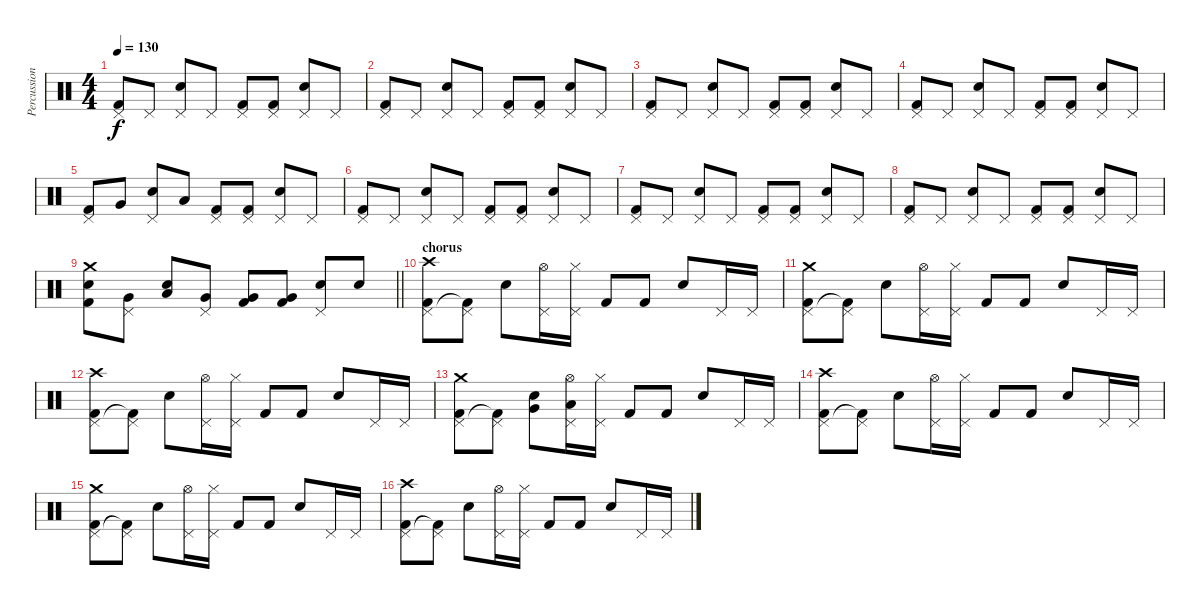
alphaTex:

\track ("Percussion" "Percussion") {instrument percussion}
\staff {score}
\articulation defaults
\ts (4 4)
\tempo 130
\clef neutral
\ks c
("Pedal Hi-Hat (hit)" "Kick (hit) 2").8{dy f} "Pedal Hi-Hat (hit)".8 ("Pedal Hi-Hat (hit)" "Electric Snare (hit)").8 "Pedal Hi-Hat (hit)".8 ("Pedal Hi-Hat (hit)" "Kick (hit) 2").8 ("Pedal Hi-Hat (hit)" "Kick (hit) 2").8 ("Pedal Hi-Hat (hit)" "Electric Snare (hit)").8 "Pedal Hi-Hat (hit)".8 |
("Pedal Hi-Hat (hit)" "Kick (hit) 2").8 "Pedal Hi-Hat (hit)".8 ("Pedal Hi-Hat (hit)" "Electric Snare (hit)").8 "Pedal Hi-Hat (hit)".8 ("Pedal Hi-Hat (hit)" "Kick (hit) 2").8 ("Pedal Hi-Hat (hit)" "Kick (hit) 2").8 ("Pedal Hi-Hat (hit)" "Electric Snare (hit)").8 "Pedal Hi-Hat (hit)".8 |
("Pedal Hi-Hat (hit)" "Kick (hit) 2").8 "Pedal Hi-Hat (hit)".8 ("Pedal Hi-Hat (hit)" "Electric Snare (hit)").8 "Pedal Hi-Hat (hit)".8 ("Pedal Hi-Hat (hit)" "Kick (hit) 2").8 ("Pedal Hi-Hat (hit)" "Kick (hit) 2").8 ("Pedal Hi-Hat (hit)" "Electric Snare (hit)").8 "Pedal Hi-Hat (hit)".8 |
("Pedal Hi-Hat (hit)" "Kick (hit) 2").8 "Pedal Hi-Hat (hit)".8 ("Pedal Hi-Hat (hit)" "Electric Snare (hit)").8 "Pedal Hi-Hat (hit)".8 ("Pedal Hi-Hat (hit)" "Kick (hit) 2").8 ("Pedal Hi-Hat (hit)" "Kick (hit) 2").8 ("Pedal Hi-Hat (hit)" "Electric Snare (hit)").8 "Pedal Hi-Hat (hit)".8 |
("Pedal Hi-Hat (hit)" "Kick (hit) 2").8 "Very Low Tom (hit)".8 ("Pedal Hi-Hat (hit)" "Electric Snare (hit)").8 "Low Floor Tom (hit)".8 ("Pedal Hi-Hat (hit)" "Kick (hit) 2").8 ("Pedal Hi-Hat (hit)" "Kick (hit) 2").8 ("Pedal Hi-Hat (hit)" "Electric Snare (hit)").8 "Pedal Hi-Hat (hit)".8 |
("Pedal Hi-Hat (hit)" "Kick (hit) 2").8 "Pedal Hi-Hat (hit)".8 ("Pedal Hi-Hat (hit)" "Electric Snare (hit)").8 "Pedal Hi-Hat (hit)".8 ("Pedal Hi-Hat (hit)" "Kick (hit) 2").8 ("Pedal Hi-Hat (hit)" "Kick (hit) 2").8 ("Pedal Hi-Hat (hit)" "Electric Snare (hit)").8 "Pedal Hi-Hat (hit)".8 |
("Pedal Hi-Hat (hit)" "Kick (hit) 2").8 "Pedal Hi-Hat (hit)".8 ("Pedal Hi-Hat (hit)" "Electric Snare (hit)").8 "Pedal Hi-Hat (hit)".8 ("Pedal Hi-Hat (hit)" "Kick (hit) 2").8 ("Pedal Hi-Hat (hit)" "Kick (hit) 2").8 ("Pedal Hi-Hat (hit)" "Electric Snare (hit)").8 "Pedal Hi-Hat (hit)".8 |
("Pedal Hi-Hat (hit)" "Kick (hit) 2").8 "Pedal Hi-Hat (hit)".8 ("Pedal Hi-Hat (hit)" "Electric Snare (hit)").8 "Pedal Hi-Hat (hit)".8 ("Pedal Hi-Hat (hit)" "Kick (hit) 2").8 ("Pedal Hi-Hat (hit)" "Kick (hit) 2").8 ("Pedal Hi-Hat (hit)" "Electric Snare (hit)").8 "Pedal Hi-Hat (hit)".8 |
\barLineRight lightlight
("Crash medium (hit)" "Electric Snare (hit)" "Kick (hit) 2").8 ("Pedal Hi-Hat (hit)" "Very Low Tom (hit)").8 ("Electric Snare (hit)" "Low Floor Tom (hit)").8 ("Pedal Hi-Hat (hit)" "Very Low Tom (hit)").8 ("Very Low Tom (hit)" "Kick (hit) 2").8 ("Very Low Tom (hit)" "Kick (hit) 2").8 ("Pedal Hi-Hat (hit)" "Electric Snare (hit)").8 "Electric Snare (hit)".8 |
\section ("" "chorus")
("Crash high (hit)" "Pedal Hi-Hat (hit)" "Kick (hit) 2").8 ("Pedal Hi-Hat (hit)" "Kick (hit) 2"{t}).8 "Electric Snare (hit)".8 ("Hi-Hat (open)" "Pedal Hi-Hat (hit)").16 ("Hi-Hat (closed)" "Pedal Hi-Hat (hit)").16 "Kick (hit) 2".8 "Kick (hit) 2".8 "Electric Snare (hit)".8 "Pedal Hi-Hat (hit)".16 "Pedal Hi-Hat (hit)".16 |
("Crash medium (hit)" "Pedal Hi-Hat (hit)" "Kick (hit) 2").8 ("Pedal Hi-Hat (hit)" "Kick (hit) 2"{t}).8 "Electric Snare (hit)".8 ("Hi-Hat (open)" "Pedal Hi-Hat (hit)").16 ("Hi-Hat (closed)" "Pedal Hi-Hat (hit)").16 "Kick (hit) 2".8 "Kick (hit) 2".8 "Electric Snare (hit)".8 "Pedal Hi-Hat (hit)".16 "Pedal Hi-Hat (hit)".16 |
("Crash high (hit)" "Pedal Hi-Hat (hit)" "Kick (hit) 2").8 ("Pedal Hi-Hat (hit)" "Kick (hit) 2"{t}).8 "Electric Snare (hit)".8 ("Hi-Hat (open)" "Pedal Hi-Hat (hit)").16 ("Hi-Hat (closed)" "Pedal Hi-Hat (hit)").16 "Kick (hit) 2".8 "Kick (hit) 2".8 "Electric Snare (hit)".8 "Pedal Hi-Hat (hit)".16 "Pedal Hi-Hat (hit)".16 |
("Crash medium (hit)" "Pedal Hi-Hat (hit)" "Kick (hit) 2").8 ("Pedal Hi-Hat (hit)" "Kick (hit) 2"{t}).8 ("Very Low Tom (hit)" "Electric Snare (hit)").8 ("Low Floor Tom (hit)" "Hi-Hat (open)" "Pedal Hi-Hat (hit)").16 ("Hi-Hat (closed)" "Pedal Hi-Hat (hit)").16 "Kick (hit) 2".8 "Kick (hit) 2".8 "Electric Snare (hit)".8 "Pedal Hi-Hat (hit)".16 "Pedal Hi-Hat (hit)".16 |
("Crash high (hit)" "Pedal Hi-Hat (hit)" "Kick (hit) 2").8 ("Pedal Hi-Hat (hit)" "Kick (hit) 2"{t}).8 "Electric Snare (hit)".8 ("Hi-Hat (open)" "Pedal Hi-Hat (hit)").16 ("Hi-Hat (closed)" "Pedal Hi-Hat (hit)").16 "Kick (hit) 2".8 "Kick (hit) 2".8 "Electric Snare (hit)".8 "Pedal Hi-Hat (hit)".16 "Pedal Hi-Hat (hit)".16 |
("Crash medium (hit)" "Pedal Hi-Hat (hit)" "Kick (hit) 2").8 ("Pedal Hi-Hat (hit)" "Kick (hit) 2"{t}).8 "Electric Snare (hit)".8 ("Hi-Hat (open)" "Pedal Hi-Hat (hit)").16 ("Hi-Hat (closed)" "Pedal Hi-Hat (hit)").16 "Kick (hit) 2".8 "Kick (hit) 2".8 "Electric Snare (hit)".8 "Pedal Hi-Hat (hit)".16 "Pedal Hi-Hat (hit)".16 |
("Crash high (hit)" "Pedal Hi-Hat (hit)" "Kick (hit) 2").8 ("Pedal Hi-Hat (hit)" "Kick (hit) 2"{t}).8 "Electric Snare (hit)".8 ("Hi-Hat (open)" "Pedal Hi-Hat (hit)").16 ("Hi-Hat (closed)" "Pedal Hi-Hat (hit)").16 "Kick (hit) 2".8 "Kick (hit) 2".8 "Electric Snare (hit)".8 "Pedal Hi-Hat (hit)".16 "Pedal Hi-Hat (hit)".16
